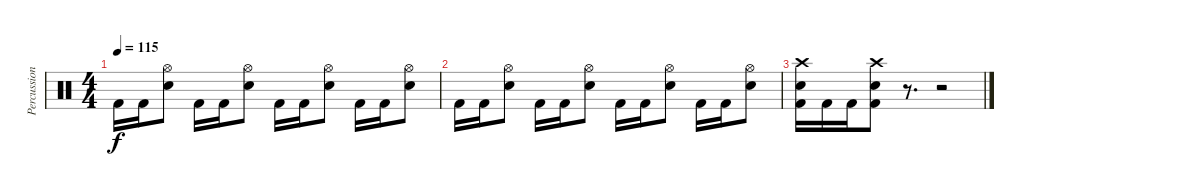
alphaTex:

\track ("Percussions" "Percussion") {instrument percussion}
\staff {score}
\articulation defaults
\ts (4 4)
\tempo 115
\clef neutral
\ks c "Kick (hit) 2".16{dy f} "Kick (hit) 2".16
("Hi-Hat (open)" "Snare (hit) 2").8 "Kick (hit) 2".16 "Kick (hit) 2".16 ("Hi-Hat (open)" "Snare (hit) 2").8 "Kick (hit) 2".16 "Kick (hit) 2".16 ("Hi-Hat (open)" "Snare (hit) 2").8 "Kick (hit) 2".16 "Kick (hit) 2".16 ("Hi-Hat (open)" "Snare (hit) 2").8 |
"Kick (hit) 2".16 "Kick (hit) 2".16 ("Hi-Hat (open)" "Snare (hit) 2").8 "Kick (hit) 2".16 "Kick (hit) 2".16 ("Hi-Hat (open)" "Snare (hit) 2").8 "Kick (hit) 2".16 "Kick (hit) 2".16 ("Hi-Hat (open)" "Snare (hit) 2").8 "Kick (hit) 2".16 "Kick (hit) 2".16 ("Hi-Hat (open)" "Snare (hit) 2").8 |
("Crash high (hit)" "Snare (hit) 2" "Kick (hit) 2").16 "Kick (hit) 2".16 "Kick (hit) 2".16 ("Crash high (hit)" "Snare (hit) 2" "Kick (hit) 2").8 r.8{d} r.2
